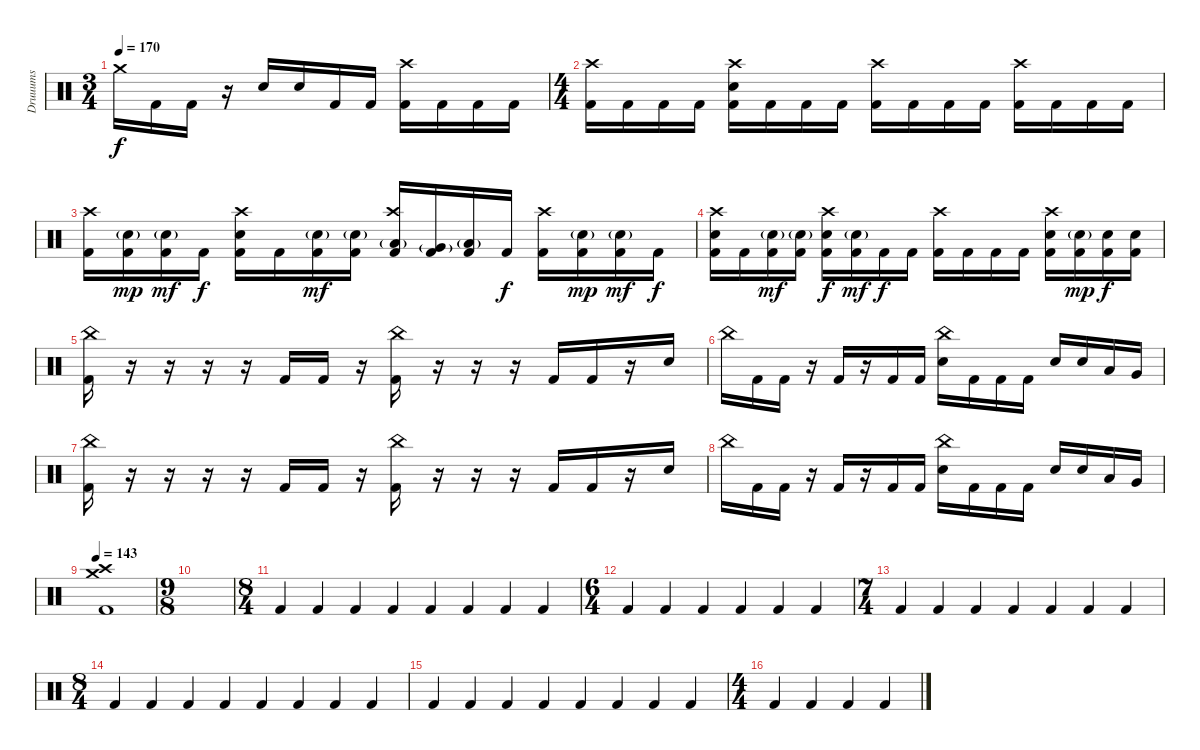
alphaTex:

\track ("Druuums" "Druuums") {instrument percussion}
\staff {score}
\articulation defaults
\ts (3 4)
\tempo 170
\clef neutral
\ks c "Crash medium (hit)".16{dy f} "Kick (hit) 2".16 "Kick (hit) 2".16
r.16 "Electric Snare (hit)".16 "Electric Snare (hit)".16 "Kick (hit) 2".16 "Kick (hit) 2".16 ("Crash high (hit)" "Kick (hit) 2").16 "Kick (hit) 2".16 "Kick (hit) 2".16 "Kick (hit) 2".16 |
\ts (4 4)
("Crash high (hit)" "Kick (hit) 2").16 "Kick (hit) 2".16 "Kick (hit) 2".16 "Kick (hit) 2".16 ("Crash high (hit)" "Electric Snare (hit)" "Kick (hit) 2").16 "Kick (hit) 2".16 "Kick (hit) 2".16 "Kick (hit) 2".16 ("Crash high (hit)" "Kick (hit) 2").16 "Kick (hit) 2".16 "Kick (hit) 2".16 "Kick (hit) 2".16 ("Crash high (hit)" "Kick (hit) 2").16 "Kick (hit) 2".16 "Kick (hit) 2".16 "Kick (hit) 2".16 |
("Crash high (hit)" "Kick (hit) 2").16 ("Electric Snare (hit)"{g} "Kick (hit) 2").16{dy mp} ("Electric Snare (hit)"{g} "Kick (hit) 2").16{dy mf} "Kick (hit) 2".16{dy f} ("Crash high (hit)" "Electric Snare (hit)" "Kick (hit) 2").16 "Kick (hit) 2".16 ("Electric Snare (hit)"{g} "Kick (hit) 2").16{dy mf} ("Electric Snare (hit)"{g} "Kick (hit) 2").16 ("Crash high (hit)" "Low Tom (hit)"{g} "Kick (hit) 2").16 ("Very Low Tom (hit)"{g} "Kick (hit) 2").16 ("Low Floor Tom (hit)"{g} "Kick (hit) 2").16 "Kick (hit) 2".16{dy f} ("Crash high (hit)" "Kick (hit) 2").16 ("Electric Snare (hit)"{g} "Kick (hit) 2").16{dy mp} ("Electric Snare (hit)"{g} "Kick (hit) 2").16{dy mf} "Kick (hit) 2".16{dy f} |
("Crash high (hit)" "Electric Snare (hit)" "Kick (hit) 2").16 "Kick (hit) 2".16 ("Electric Snare (hit)"{g} "Kick (hit) 2").16{dy mf} ("Electric Snare (hit)"{g} "Kick (hit) 2").16 ("Crash high (hit)" "Electric Snare (hit)" "Kick (hit) 2").16{dy f} ("Electric Snare (hit)"{g} "Kick (hit) 2").16{dy mf} "Kick (hit) 2".16{dy f} "Kick (hit) 2".16 ("Crash high (hit)" "Kick (hit) 2").16 "Kick (hit) 2".16 "Kick (hit) 2".16 "Kick (hit) 2".16 ("Crash high (hit)" "Electric Snare (hit)" "Kick (hit) 2").16 ("Electric Snare (hit)"{g} "Kick (hit) 2").16{dy mp} ("Electric Snare (hit)" "Kick (hit) 2").16{dy f} ("Electric Snare (hit)" "Kick (hit) 2").16 |
("China (hit)" "Kick (hit) 2").16 r.16 r.16 r.16 r.16 "Kick (hit) 2".16 "Kick (hit) 2".16 r.16 ("China (hit)" "Kick (hit) 2").16 r.16 r.16 r.16 "Kick (hit) 2".16 "Kick (hit) 2".16 r.16 "Electric Snare (hit)".16 |
"China (hit)".16 "Kick (hit) 2".16 "Kick (hit) 2".16 r.16 "Kick (hit) 2".16 r.16 "Kick (hit) 2".16 "Kick (hit) 2".16 ("China (hit)" "Electric Snare (hit)").16 "Kick (hit) 2".16 "Kick (hit) 2".16 "Kick (hit) 2".16 "Electric Snare (hit)".16 "Electric Snare (hit)".16 "Low Tom (hit)".16 "Very Low Tom (hit)".16 |
("China (hit)" "Kick (hit) 2").16 r.16 r.16 r.16 r.16 "Kick (hit) 2".16 "Kick (hit) 2".16 r.16 ("China (hit)" "Kick (hit) 2").16 r.16 r.16 r.16 "Kick (hit) 2".16 "Kick (hit) 2".16 r.16 "Electric Snare (hit)".16 |
"China (hit)".16 "Kick (hit) 2".16 "Kick (hit) 2".16 r.16 "Kick (hit) 2".16 r.16 "Kick (hit) 2".16 "Kick (hit) 2".16 ("China (hit)" "Electric Snare (hit)").16 "Kick (hit) 2".16 "Kick (hit) 2".16 "Kick (hit) 2".16 "Electric Snare (hit)".16 "Electric Snare (hit)".16 "Low Tom (hit)".16 "Very Low Tom (hit)".16 |
\tempo 143
("Crash high (hit)" "Crash medium (hit)" "Kick (hit) 2").1 |
\ts (9 8)
|
\ts (8 4)
"Kick (hit) 2".4{volume 3} "Kick (hit) 2".4 "Kick (hit) 2".4 "Kick (hit) 2".4 "Kick (hit) 2".4 "Kick (hit) 2".4{volume 6} "Kick (hit) 2".4 "Kick (hit) 2".4 |
\ts (6 4)
"Kick (hit) 2".4 "Kick (hit) 2".4 "Kick (hit) 2".4 "Kick (hit) 2".4 "Kick (hit) 2".4 "Kick (hit) 2".4 |
\ts (7 4)
"Kick (hit) 2".4 "Kick (hit) 2".4 "Kick (hit) 2".4 "Kick (hit) 2".4 "Kick (hit) 2".4 "Kick (hit) 2".4 "Kick (hit) 2".4 |
\ts (8 4)
"Kick (hit) 2".4 "Kick (hit) 2".4 "Kick (hit) 2".4 "Kick (hit) 2".4 "Kick (hit) 2".4 "Kick (hit) 2".4 "Kick (hit) 2".4 "Kick (hit) 2".4 |
"Kick (hit) 2".4 "Kick (hit) 2".4 "Kick (hit) 2".4 "Kick (hit) 2".4 "Kick (hit) 2".4 "Kick (hit) 2".4 "Kick (hit) 2".4 "Kick (hit) 2".4 |
\ts (4 4)
"Kick (hit) 2".4 "Kick (hit) 2".4 "Kick (hit) 2".4 "Kick (hit) 2".4
